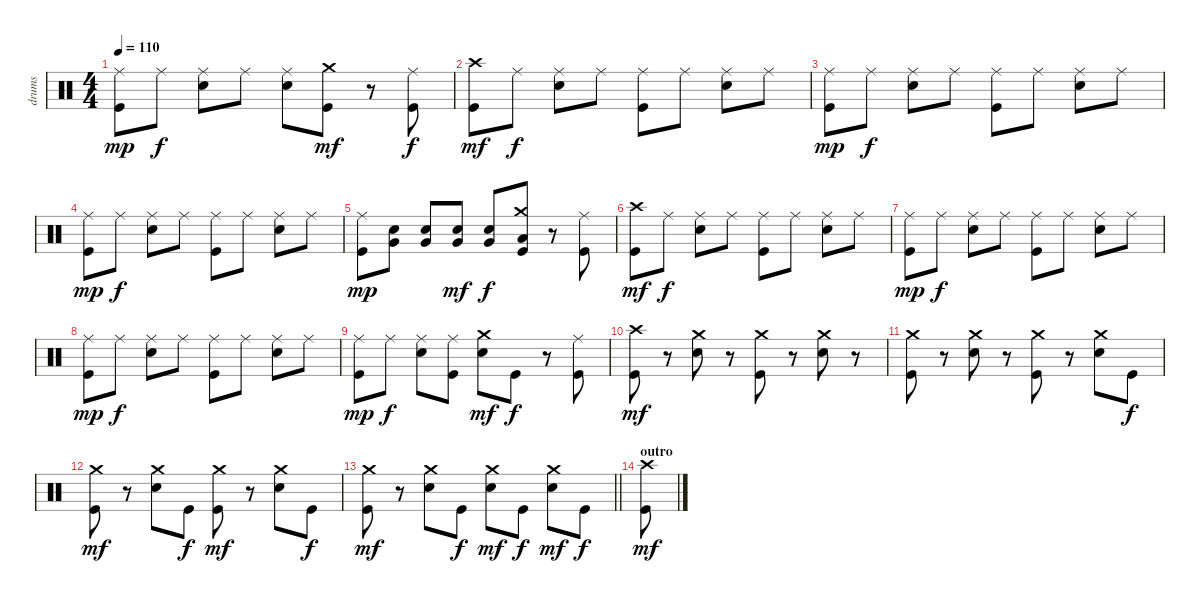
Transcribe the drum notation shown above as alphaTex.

\track ("drums" "drums") {instrument percussion}
\staff {score}
\articulation defaults
\ts (4 4)
\tempo 110
\clef neutral
\ks c
("Ride (middle)" "Kick (hit)").8{dy mp} "Ride (middle)".8{dy f} ("Ride (middle)" "Snare (hit) 2").8 "Ride (middle)".8 ("Ride (middle)" "Snare (hit) 2").8 ("Crash medium (hit)" "Kick (hit)").8{dy mf} r.8 ("Ride (middle)" "Kick (hit)").8{dy f} |
("Crash high (hit)" "Kick (hit)").8{dy mf} "Ride (middle)".8{dy f} ("Ride (middle)" "Snare (hit) 2").8 "Ride (middle)".8 ("Ride (middle)" "Kick (hit)").8 "Ride (middle)".8 ("Ride (middle)" "Snare (hit) 2").8 "Ride (middle)".8 |
("Ride (middle)" "Kick (hit)").8{dy mp} "Ride (middle)".8{dy f} ("Ride (middle)" "Snare (hit) 2").8 "Ride (middle)".8 ("Ride (middle)" "Kick (hit)").8 "Ride (middle)".8 ("Ride (middle)" "Snare (hit) 2").8 "Ride (middle)".8 |
("Ride (middle)" "Kick (hit)").8{dy mp} "Ride (middle)".8{dy f} ("Ride (middle)" "Snare (hit) 2").8 "Ride (middle)".8 ("Ride (middle)" "Kick (hit)").8 "Ride (middle)".8 ("Ride (middle)" "Snare (hit) 2").8 "Ride (middle)".8 |
("Ride (middle)" "Kick (hit)").8{dy mp} ("Very Low Tom (hit)" "Snare (hit) 2").8 ("Very Low Tom (hit)" "Snare (hit) 2").8 ("Very Low Tom (hit)" "Snare (hit) 2").8{dy mf} ("Very Low Tom (hit)" "Snare (hit) 2").8{dy f} ("Crash medium (hit)" "Low Tom (hit)" "Kick (hit)").8 r.8 ("Ride (middle)" "Kick (hit)").8 |
("Crash high (hit)" "Kick (hit)").8{dy mf} "Ride (middle)".8{dy f} ("Ride (middle)" "Snare (hit) 2").8 "Ride (middle)".8 ("Ride (middle)" "Kick (hit)").8 "Ride (middle)".8 ("Ride (middle)" "Snare (hit) 2").8 "Ride (middle)".8 |
("Ride (middle)" "Kick (hit)").8{dy mp} "Ride (middle)".8{dy f} ("Ride (middle)" "Snare (hit) 2").8 "Ride (middle)".8 ("Ride (middle)" "Kick (hit)").8 "Ride (middle)".8 ("Ride (middle)" "Snare (hit) 2").8 "Ride (middle)".8 |
("Ride (middle)" "Kick (hit)").8{dy mp} "Ride (middle)".8{dy f} ("Ride (middle)" "Snare (hit) 2").8 "Ride (middle)".8 ("Ride (middle)" "Kick (hit)").8 "Ride (middle)".8 ("Ride (middle)" "Snare (hit) 2").8 "Ride (middle)".8 |
("Ride (middle)" "Kick (hit)").8{dy mp} "Ride (middle)".8{dy f} ("Ride (middle)" "Snare (hit) 2").8 ("Ride (middle)" "Kick (hit)").8 ("Crash medium (hit)" "Snare (hit) 2").8{dy mf} "Kick (hit)".8{dy f} r.8 ("Ride (middle)" "Kick (hit)").8 |
("Crash high (hit)" "Kick (hit)").8{dy mf} r.8 ("Crash medium (hit)" "Snare (hit) 2").8 r.8 ("Crash medium (hit)" "Kick (hit)").8 r.8 ("Crash medium (hit)" "Snare (hit) 2").8 r.8 |
("Crash medium (hit)" "Kick (hit)").8 r.8 ("Crash medium (hit)" "Snare (hit) 2").8 r.8 ("Crash medium (hit)" "Kick (hit)").8 r.8 ("Crash medium (hit)" "Snare (hit) 2").8 "Kick (hit)".8{dy f} |
("Crash medium (hit)" "Kick (hit)").8{dy mf} r.8 ("Crash medium (hit)" "Snare (hit) 2").8 "Kick (hit)".8{dy f} ("Crash medium (hit)" "Kick (hit)").8{dy mf} r.8 ("Crash medium (hit)" "Snare (hit) 2").8 "Kick (hit)".8{dy f} |
\barLineRight lightlight
("Crash medium (hit)" "Kick (hit)").8{dy mf} r.8 ("Crash medium (hit)" "Snare (hit) 2").8 "Kick (hit)".8{dy f} ("Crash medium (hit)" "Snare (hit) 2").8{dy mf} "Kick (hit)".8{dy f} ("Crash medium (hit)" "Snare (hit) 2").8{dy mf} "Kick (hit)".8{dy f} |
\section ("" "outro")
("Crash high (hit)" "Kick (hit)").8{dy mf}
